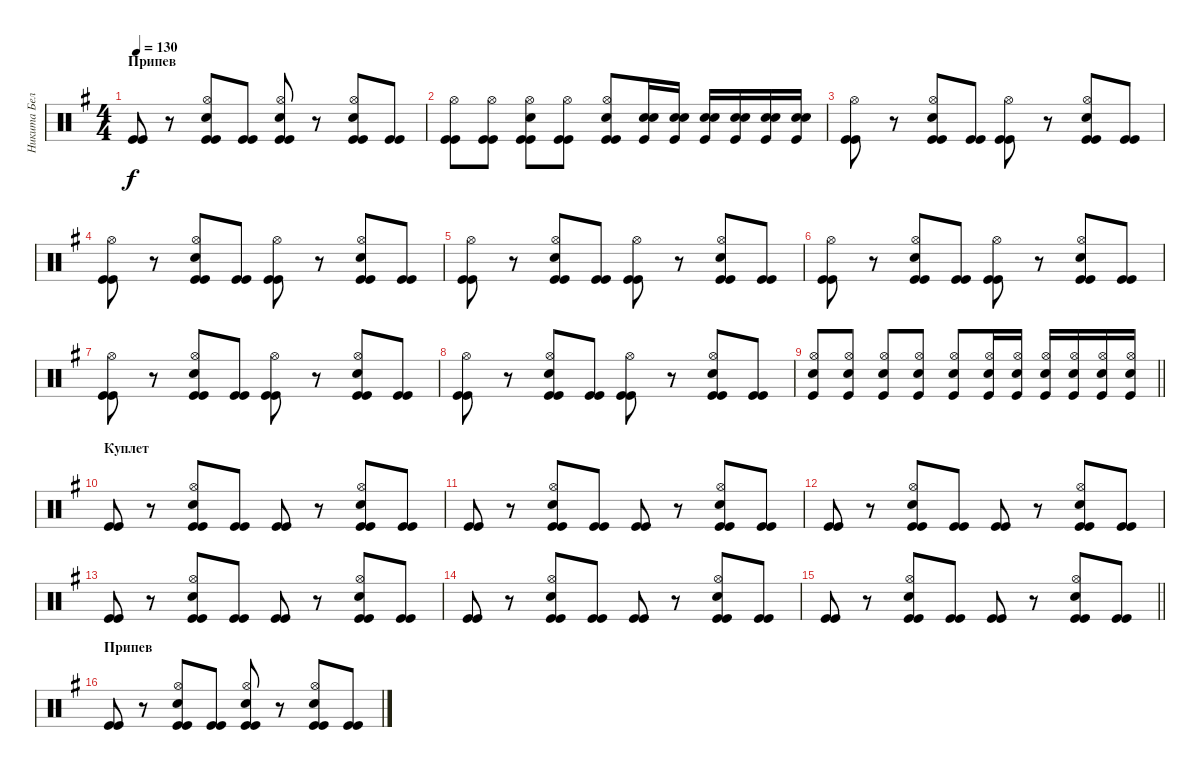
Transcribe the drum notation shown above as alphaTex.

\track ("Никита Белозёров" "Никита Бел") {instrument percussion}
\staff {score}
\articulation defaults
\ts (4 4)
\section ("" "Припев")
\tempo 130
\clef neutral
\ks eminor
("Kick (hit)" "Kick (hit)").8{dy f} r.8 ("Hi-Hat (open)" "Kick (hit)" "Kick (hit)" "Snare (hit) 2").8 ("Kick (hit)" "Kick (hit)").8 ("Hi-Hat (open)" "Kick (hit)" "Kick (hit)" "Snare (hit) 2").8 r.8 ("Hi-Hat (open)" "Kick (hit)" "Kick (hit)" "Snare (hit) 2").8 ("Kick (hit)" "Kick (hit)").8 |
("Hi-Hat (open)" "Kick (hit)" "Kick (hit)").8 ("Hi-Hat (open)" "Kick (hit)" "Kick (hit)").8 ("Hi-Hat (open)" "Kick (hit)" "Kick (hit)" "Snare (hit) 2").8 ("Hi-Hat (open)" "Kick (hit)" "Kick (hit)").8 ("Hi-Hat (open)" "Kick (hit)" "Kick (hit)" "Snare (hit) 2").8 ("Kick (hit)" "Electric Snare (hit)" "Snare (hit) 2").16 ("Kick (hit)" "Electric Snare (hit)" "Snare (hit) 2").16 ("Kick (hit)" "Electric Snare (hit)" "Snare (hit) 2").16 ("Kick (hit)" "Electric Snare (hit)" "Snare (hit) 2").16 ("Kick (hit)" "Electric Snare (hit)" "Snare (hit) 2").16 ("Kick (hit)" "Electric Snare (hit)" "Snare (hit) 2").16 |
("Hi-Hat (open)" "Kick (hit)" "Kick (hit)").8 r.8 ("Hi-Hat (open)" "Kick (hit)" "Kick (hit)" "Snare (hit) 2").8 ("Kick (hit)" "Kick (hit)").8 ("Hi-Hat (open)" "Kick (hit)" "Kick (hit)").8 r.8 ("Hi-Hat (open)" "Kick (hit)" "Kick (hit)" "Snare (hit) 2").8 ("Kick (hit)" "Kick (hit)").8 |
("Hi-Hat (open)" "Kick (hit)" "Kick (hit)").8 r.8 ("Hi-Hat (open)" "Kick (hit)" "Kick (hit)" "Snare (hit) 2").8 ("Kick (hit)" "Kick (hit)").8 ("Hi-Hat (open)" "Kick (hit)" "Kick (hit)").8 r.8 ("Hi-Hat (open)" "Kick (hit)" "Kick (hit)" "Snare (hit) 2").8 ("Kick (hit)" "Kick (hit)").8 |
("Hi-Hat (open)" "Kick (hit)" "Kick (hit)").8 r.8 ("Hi-Hat (open)" "Kick (hit)" "Kick (hit)" "Snare (hit) 2").8 ("Kick (hit)" "Kick (hit)").8 ("Hi-Hat (open)" "Kick (hit)" "Kick (hit)").8 r.8 ("Hi-Hat (open)" "Kick (hit)" "Kick (hit)" "Snare (hit) 2").8 ("Kick (hit)" "Kick (hit)").8 |
("Hi-Hat (open)" "Kick (hit)" "Kick (hit)").8 r.8 ("Hi-Hat (open)" "Kick (hit)" "Kick (hit)" "Snare (hit) 2").8 ("Kick (hit)" "Kick (hit)").8 ("Hi-Hat (open)" "Kick (hit)" "Kick (hit)").8 r.8 ("Hi-Hat (open)" "Kick (hit)" "Kick (hit)" "Snare (hit) 2").8 ("Kick (hit)" "Kick (hit)").8 |
("Hi-Hat (open)" "Kick (hit)" "Kick (hit)").8 r.8 ("Hi-Hat (open)" "Kick (hit)" "Kick (hit)" "Snare (hit) 2").8 ("Kick (hit)" "Kick (hit)").8 ("Hi-Hat (open)" "Kick (hit)" "Kick (hit)").8 r.8 ("Hi-Hat (open)" "Kick (hit)" "Kick (hit)" "Snare (hit) 2").8 ("Kick (hit)" "Kick (hit)").8 |
("Hi-Hat (open)" "Kick (hit)" "Kick (hit)").8 r.8 ("Hi-Hat (open)" "Kick (hit)" "Kick (hit)" "Snare (hit) 2").8 ("Kick (hit)" "Kick (hit)").8 ("Hi-Hat (open)" "Kick (hit)" "Kick (hit)").8 r.8 ("Hi-Hat (open)" "Kick (hit)" "Kick (hit)" "Snare (hit) 2").8 ("Kick (hit)" "Kick (hit)").8 |
\barLineRight lightlight
("Hi-Hat (open)" "Kick (hit)" "Snare (hit) 2").8 ("Hi-Hat (open)" "Kick (hit)" "Snare (hit) 2").8 ("Hi-Hat (open)" "Kick (hit)" "Snare (hit) 2").8 ("Hi-Hat (open)" "Kick (hit)" "Snare (hit) 2").8 ("Hi-Hat (open)" "Kick (hit)" "Snare (hit) 2").8 ("Hi-Hat (open)" "Kick (hit)" "Snare (hit) 2").16 ("Hi-Hat (open)" "Kick (hit)" "Snare (hit) 2").16 ("Hi-Hat (open)" "Kick (hit)" "Snare (hit) 2").16 ("Hi-Hat (open)" "Kick (hit)" "Snare (hit) 2").16 ("Hi-Hat (open)" "Kick (hit)" "Snare (hit) 2").16 ("Hi-Hat (open)" "Kick (hit)" "Snare (hit) 2").16 |
\section ("" "Куплет")
("Kick (hit)" "Kick (hit)").8 r.8 ("Hi-Hat (open)" "Kick (hit)" "Kick (hit)" "Snare (hit) 2").8 ("Kick (hit)" "Kick (hit)").8 ("Kick (hit)" "Kick (hit)").8 r.8 ("Hi-Hat (open)" "Kick (hit)" "Kick (hit)" "Snare (hit) 2").8 ("Kick (hit)" "Kick (hit)").8 |
("Kick (hit)" "Kick (hit)").8 r.8 ("Hi-Hat (open)" "Kick (hit)" "Kick (hit)" "Snare (hit) 2").8 ("Kick (hit)" "Kick (hit)").8 ("Kick (hit)" "Kick (hit)").8 r.8 ("Hi-Hat (open)" "Kick (hit)" "Kick (hit)" "Snare (hit) 2").8 ("Kick (hit)" "Kick (hit)").8 |
("Kick (hit)" "Kick (hit)").8 r.8 ("Hi-Hat (open)" "Kick (hit)" "Kick (hit)" "Snare (hit) 2").8 ("Kick (hit)" "Kick (hit)").8 ("Kick (hit)" "Kick (hit)").8 r.8 ("Hi-Hat (open)" "Kick (hit)" "Kick (hit)" "Snare (hit) 2").8 ("Kick (hit)" "Kick (hit)").8 |
("Kick (hit)" "Kick (hit)").8 r.8 ("Hi-Hat (open)" "Kick (hit)" "Kick (hit)" "Snare (hit) 2").8 ("Kick (hit)" "Kick (hit)").8 ("Kick (hit)" "Kick (hit)").8 r.8 ("Hi-Hat (open)" "Kick (hit)" "Kick (hit)" "Snare (hit) 2").8 ("Kick (hit)" "Kick (hit)").8 |
("Kick (hit)" "Kick (hit)").8 r.8 ("Hi-Hat (open)" "Kick (hit)" "Kick (hit)" "Snare (hit) 2").8 ("Kick (hit)" "Kick (hit)").8 ("Kick (hit)" "Kick (hit)").8 r.8 ("Hi-Hat (open)" "Kick (hit)" "Kick (hit)" "Snare (hit) 2").8 ("Kick (hit)" "Kick (hit)").8 |
\barLineRight lightlight
("Kick (hit)" "Kick (hit)").8 r.8 ("Hi-Hat (open)" "Kick (hit)" "Kick (hit)" "Snare (hit) 2").8 ("Kick (hit)" "Kick (hit)").8 ("Kick (hit)" "Kick (hit)").8 r.8 ("Hi-Hat (open)" "Kick (hit)" "Kick (hit)" "Snare (hit) 2").8 ("Kick (hit)" "Kick (hit)").8 |
\section ("" "Припев")
("Kick (hit)" "Kick (hit)").8 r.8 ("Hi-Hat (open)" "Kick (hit)" "Kick (hit)" "Snare (hit) 2").8 ("Kick (hit)" "Kick (hit)").8 ("Hi-Hat (open)" "Kick (hit)" "Kick (hit)" "Snare (hit) 2").8 r.8 ("Hi-Hat (open)" "Kick (hit)" "Kick (hit)" "Snare (hit) 2").8 ("Kick (hit)" "Kick (hit)").8
